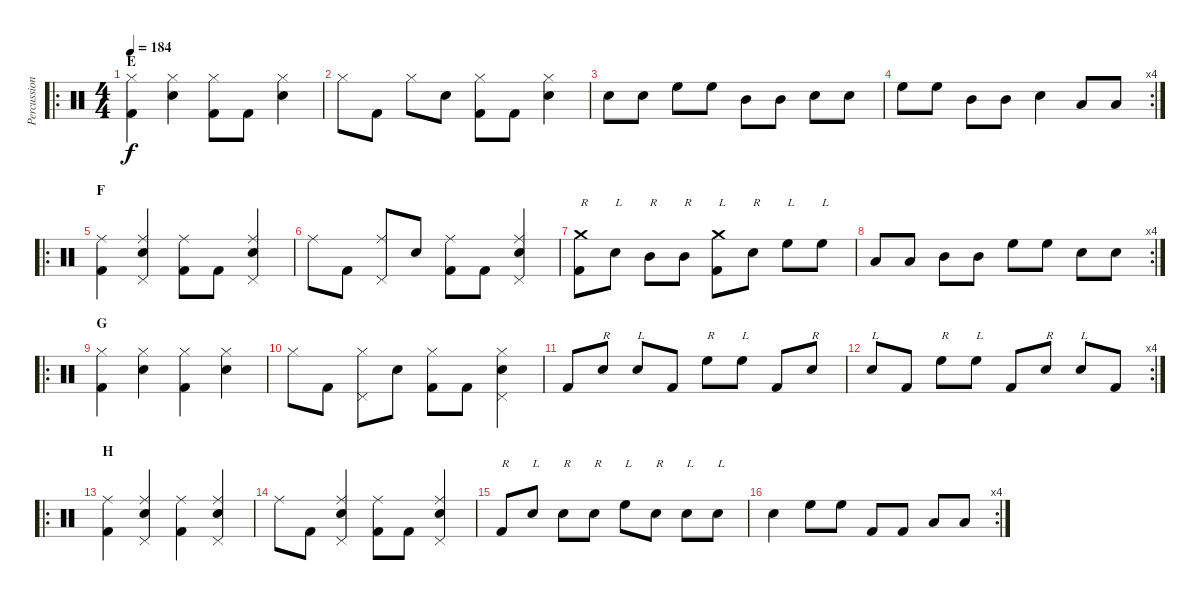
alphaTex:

\track ("Percussioni" "Percussion") {instrument percussion}
\staff {score}
\articulation defaults
\ro
\ts (4 4)
\section ("" "E")
\tempo 184
\clef neutral
\ks c
("Hi-Hat (closed)" "Kick (hit) 2").4{dy f} ("Hi-Hat (closed)" "Snare (hit) 2").4 ("Hi-Hat (closed)" "Kick (hit) 2").8 "Kick (hit) 2".8 ("Hi-Hat (closed)" "Snare (hit) 2").4 |
"Hi-Hat (closed)".8 "Kick (hit) 2".8 "Hi-Hat (closed)".8 "Snare (hit) 2".8 ("Hi-Hat (closed)" "Kick (hit) 2").8 "Kick (hit) 2".8 ("Hi-Hat (closed)" "Snare (hit) 2").4 |
"Snare (hit) 2".8 "Snare (hit) 2".8 "High Floor Tom (hit)".8 "High Floor Tom (hit)".8 "Mid Tom (hit)".8 "Mid Tom (hit)".8 "Snare (hit) 2".8 "Snare (hit) 2".8 |
\rc 4 "High Floor Tom (hit)".8 "High Floor Tom (hit)".8 "Mid Tom (hit)".8 "Mid Tom (hit)".8 "Snare (hit) 2".4 "Low Floor Tom (hit)".8 "Low Floor Tom (hit)".8
|
\ro
\section ("" "F")
("Ride (middle)" "Kick (hit) 2").4 ("Ride (middle)" "Pedal Hi-Hat (hit)" "Snare (hit) 2").4 ("Ride (middle)" "Kick (hit) 2").8 "Kick (hit) 2".8 ("Ride (middle)" "Pedal Hi-Hat (hit)" "Snare (hit) 2").4 |
"Ride (middle)".8 "Kick (hit) 2".8 ("Ride (middle)" "Pedal Hi-Hat (hit)").8 "Snare (hit) 2".8 ("Ride (middle)" "Kick (hit) 2").8 "Kick (hit) 2".8 ("Ride (middle)" "Pedal Hi-Hat (hit)" "Snare (hit) 2").4 |
("Kick (hit) 2" "Crash medium (hit)").8{txt "R"} "Snare (hit) 2".8{txt "L"} "Mid Tom (hit)".8{txt "R"} "Mid Tom (hit)".8{txt "R"} ("Kick (hit) 2" "Crash medium (hit)").8{txt "L"} "Snare (hit) 2".8{txt "R"} "High Floor Tom (hit)".8{txt "L"} "High Floor Tom (hit)".8{txt "L"} |
\rc 4 "Low Floor Tom (hit)".8 "Low Floor Tom (hit)".8 "Mid Tom (hit)".8 "Mid Tom (hit)".8 "High Floor Tom (hit)".8 "High Floor Tom (hit)".8 "Snare (hit) 2".8 "Snare (hit) 2".8
|
\ro
\section ("" "G")
("Hi-Hat (closed)" "Kick (hit) 2").4 ("Hi-Hat (closed)" "Snare (hit) 2").4 ("Hi-Hat (closed)" "Kick (hit) 2").4 ("Hi-Hat (closed)" "Snare (hit) 2").4 |
"Hi-Hat (closed)".8 "Kick (hit) 2".8 ("Hi-Hat (closed)" "Pedal Hi-Hat (hit)").8 "Snare (hit) 2".8 ("Hi-Hat (closed)" "Kick (hit) 2").8 "Kick (hit) 2".8 ("Hi-Hat (closed)" "Pedal Hi-Hat (hit)" "Snare (hit) 2").4 |
"Kick (hit) 2".8 "Snare (hit) 2".8{txt "R"} "Snare (hit) 2".8{txt "L"} "Kick (hit) 2".8 "High Floor Tom (hit)".8{txt "R"} "High Floor Tom (hit)".8{txt "L"} "Kick (hit) 2".8 "Snare (hit) 2".8{txt "R"} |
\rc 4 "Snare (hit) 2".8{txt "L"} "Kick (hit) 2".8 "High Floor Tom (hit)".8{txt "R"} "High Floor Tom (hit)".8{txt "L"} "Kick (hit) 2".8 "Snare (hit) 2".8{txt "R"} "Snare (hit) 2".8{txt "L"} "Kick (hit) 2".8
|
\ro
\section ("" "H")
("Ride (middle)" "Kick (hit) 2").4 ("Ride (middle)" "Pedal Hi-Hat (hit)" "Snare (hit) 2").4 ("Ride (middle)" "Kick (hit) 2").4 ("Ride (middle)" "Pedal Hi-Hat (hit)" "Snare (hit) 2").4 |
"Ride (middle)".8 "Kick (hit) 2".8 ("Ride (middle)" "Pedal Hi-Hat (hit)" "Snare (hit) 2").4 ("Ride (middle)" "Kick (hit) 2").8 "Kick (hit) 2".8 ("Ride (middle)" "Pedal Hi-Hat (hit)" "Snare (hit) 2").4 |
"Kick (hit) 2".8{txt "R"} "Snare (hit) 2".8{txt "L"} "Snare (hit) 2".8{txt "R"} "Snare (hit) 2".8{txt "R"} "High Floor Tom (hit)".8{txt "L"} "Snare (hit) 2".8{txt "R"} "Snare (hit) 2".8{txt "L"} "Snare (hit) 2".8{txt "L"} |
\rc 4 "Snare (hit) 2".4 "High Floor Tom (hit)".8 "High Floor Tom (hit)".8 "Kick (hit) 2".8 "Kick (hit) 2".8 "Low Floor Tom (hit)".8 "Low Floor Tom (hit)".8
